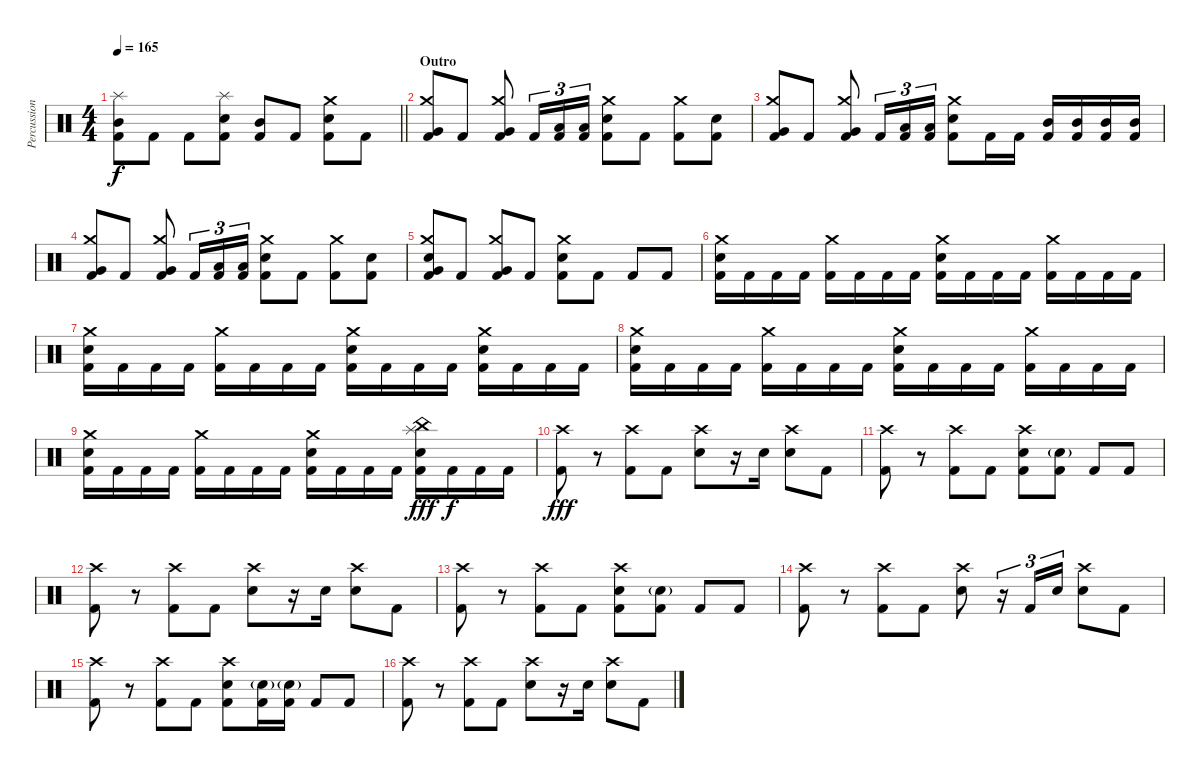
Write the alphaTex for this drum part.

\track ("Percussion" "Percussion") {instrument percussion}
\staff {score}
\articulation defaults
\ts (4 4)
\tempo 165
\clef neutral
\barLineRight lightlight
\ks c
("Splash (hit)" "Mid Tom (hit)" "Kick (hit) 2").8{dy f} "Kick (hit) 2".8 "Kick (hit) 2".8 ("Splash (hit)" "Electric Snare (hit)" "Kick (hit) 2").8 ("Mid Tom (hit)" "Kick (hit) 2").8 "Kick (hit) 2".8 ("Crash medium (hit)" "Electric Snare (hit)" "Kick (hit) 2").8 "Kick (hit) 2".8 |
\section ("" "Outro")
("Crash medium (hit)" "Very Low Tom (hit)" "Kick (hit) 2").8 "Kick (hit) 2".8 ("Crash medium (hit)" "Very Low Tom (hit)" "Kick (hit) 2").8 "Kick (hit) 2".16{tu (3 2)} ("Low Tom (hit)" "Kick (hit) 2").16{tu (3 2)} ("Low Tom (hit)" "Kick (hit) 2").16{tu (3 2)} ("Crash medium (hit)" "Electric Snare (hit)" "Kick (hit) 2").8 "Kick (hit) 2".8 ("Crash medium (hit)" "Kick (hit) 2").8 ("Electric Snare (hit)" "Kick (hit) 2").8 |
("Crash medium (hit)" "Very Low Tom (hit)" "Kick (hit) 2").8 "Kick (hit) 2".8 ("Crash medium (hit)" "Very Low Tom (hit)" "Kick (hit) 2").8 "Kick (hit) 2".16{tu (3 2)} ("Low Tom (hit)" "Kick (hit) 2").16{tu (3 2)} ("Low Tom (hit)" "Kick (hit) 2").16{tu (3 2)} ("Crash medium (hit)" "Electric Snare (hit)" "Kick (hit) 2").8 "Kick (hit) 2".16 "Kick (hit) 2".16 ("Mid Tom (hit)" "Kick (hit) 2").16 ("Mid Tom (hit)" "Kick (hit) 2").16 ("Mid Tom (hit)" "Kick (hit) 2").16 ("Mid Tom (hit)" "Kick (hit) 2").16 |
("Crash medium (hit)" "Very Low Tom (hit)" "Kick (hit) 2").8 "Kick (hit) 2".8 ("Crash medium (hit)" "Very Low Tom (hit)" "Kick (hit) 2").8 "Kick (hit) 2".16{tu (3 2)} ("Low Tom (hit)" "Kick (hit) 2").16{tu (3 2)} ("Low Tom (hit)" "Kick (hit) 2").16{tu (3 2)} ("Crash medium (hit)" "Electric Snare (hit)" "Kick (hit) 2").8 "Kick (hit) 2".8 ("Crash medium (hit)" "Kick (hit) 2").8 ("Electric Snare (hit)" "Kick (hit) 2").8 |
("Crash medium (hit)" "Electric Snare (hit)" "Very Low Tom (hit)" "Kick (hit) 2").8 "Kick (hit) 2".8 ("Crash medium (hit)" "Very Low Tom (hit)" "Kick (hit) 2").8 "Kick (hit) 2".8 ("Crash medium (hit)" "Electric Snare (hit)" "Kick (hit) 2").8 "Kick (hit) 2".8 "Kick (hit) 2".8 "Kick (hit) 2".8 |
("Crash medium (hit)" "Electric Snare (hit)" "Kick (hit) 2").16 "Kick (hit) 2".16 "Kick (hit) 2".16 "Kick (hit) 2".16 ("Crash medium (hit)" "Kick (hit) 2").16 "Kick (hit) 2".16 "Kick (hit) 2".16 "Kick (hit) 2".16 ("Crash medium (hit)" "Electric Snare (hit)" "Kick (hit) 2").16 "Kick (hit) 2".16 "Kick (hit) 2".16 "Kick (hit) 2".16 ("Crash medium (hit)" "Kick (hit) 2").16 "Kick (hit) 2".16 "Kick (hit) 2".16 "Kick (hit) 2".16 |
("Crash medium (hit)" "Electric Snare (hit)" "Kick (hit) 2").16 "Kick (hit) 2".16 "Kick (hit) 2".16 "Kick (hit) 2".16 ("Crash medium (hit)" "Kick (hit) 2").16 "Kick (hit) 2".16 "Kick (hit) 2".16 "Kick (hit) 2".16 ("Crash medium (hit)" "Electric Snare (hit)" "Kick (hit) 2").16 "Kick (hit) 2".16 "Kick (hit) 2".16 "Kick (hit) 2".16 ("Crash medium (hit)" "Electric Snare (hit)" "Kick (hit) 2").16 "Kick (hit) 2".16 "Kick (hit) 2".16 "Kick (hit) 2".16 |
("Crash medium (hit)" "Electric Snare (hit)" "Kick (hit) 2").16 "Kick (hit) 2".16 "Kick (hit) 2".16 "Kick (hit) 2".16 ("Crash medium (hit)" "Kick (hit) 2").16 "Kick (hit) 2".16 "Kick (hit) 2".16 "Kick (hit) 2".16 ("Crash medium (hit)" "Electric Snare (hit)" "Kick (hit) 2").16 "Kick (hit) 2".16 "Kick (hit) 2".16 "Kick (hit) 2".16 ("Crash medium (hit)" "Kick (hit) 2").16 "Kick (hit) 2".16 "Kick (hit) 2".16 "Kick (hit) 2".16 |
("Crash medium (hit)" "Electric Snare (hit)" "Kick (hit) 2").16 "Kick (hit) 2".16 "Kick (hit) 2".16 "Kick (hit) 2".16 ("Crash medium (hit)" "Kick (hit) 2").16 "Kick (hit) 2".16 "Kick (hit) 2".16 "Kick (hit) 2".16 ("Crash medium (hit)" "Electric Snare (hit)" "Kick (hit) 2").16 "Kick (hit) 2".16 "Kick (hit) 2".16 "Kick (hit) 2".16 ("China (hit)" "Splash (hit)" "Electric Snare (hit)" "Kick (hit) 2").16{dy fff} "Kick (hit) 2".16{dy f} "Kick (hit) 2".16 "Kick (hit) 2".16 |
("Crash high (hit)" "Kick (hit) 2").8{dy fff} r.8 ("Crash high (hit)" "Kick (hit) 2").8 "Kick (hit) 2".8 ("Crash high (hit)" "Electric Snare (hit)").8 r.16 "Electric Snare (hit)".16 ("Crash high (hit)" "Electric Snare (hit)").8 "Kick (hit) 2".8 |
("Crash high (hit)" "Kick (hit) 2").8 r.8 ("Crash high (hit)" "Kick (hit) 2").8 "Kick (hit) 2".8 ("Crash high (hit)" "Electric Snare (hit)" "Kick (hit) 2").8 ("Electric Snare (hit)"{g} "Kick (hit) 2").8 "Kick (hit) 2".8 "Kick (hit) 2".8 |
("Crash high (hit)" "Kick (hit) 2").8 r.8 ("Crash high (hit)" "Kick (hit) 2").8 "Kick (hit) 2".8 ("Crash high (hit)" "Electric Snare (hit)").8 r.16 "Electric Snare (hit)".16 ("Crash high (hit)" "Electric Snare (hit)").8 "Kick (hit) 2".8 |
("Crash high (hit)" "Kick (hit) 2").8 r.8 ("Crash high (hit)" "Kick (hit) 2").8 "Kick (hit) 2".8 ("Crash high (hit)" "Electric Snare (hit)" "Kick (hit) 2").8 ("Electric Snare (hit)"{g} "Kick (hit) 2").8 "Kick (hit) 2".8 "Kick (hit) 2".8 |
("Crash high (hit)" "Kick (hit) 2").8 r.8 ("Crash high (hit)" "Kick (hit) 2").8 "Kick (hit) 2".8 ("Crash high (hit)" "Electric Snare (hit)").8 r.16{tu (3 2)} "Kick (hit) 2".16{tu (3 2)} "Electric Snare (hit)".16{tu (3 2)} ("Crash high (hit)" "Electric Snare (hit)").8 "Kick (hit) 2".8 |
("Crash high (hit)" "Kick (hit) 2").8 r.8 ("Crash high (hit)" "Kick (hit) 2").8 "Kick (hit) 2".8 ("Crash high (hit)" "Electric Snare (hit)" "Kick (hit) 2").8 ("Electric Snare (hit)"{g} "Kick (hit) 2").16 ("Electric Snare (hit)"{g} "Kick (hit) 2").16 "Kick (hit) 2".8 "Kick (hit) 2".8 |
("Crash high (hit)" "Kick (hit) 2").8 r.8 ("Crash high (hit)" "Kick (hit) 2").8 "Kick (hit) 2".8 ("Crash high (hit)" "Electric Snare (hit)").8 r.16 "Electric Snare (hit)".16 ("Crash high (hit)" "Electric Snare (hit)").8 "Kick (hit) 2".8
